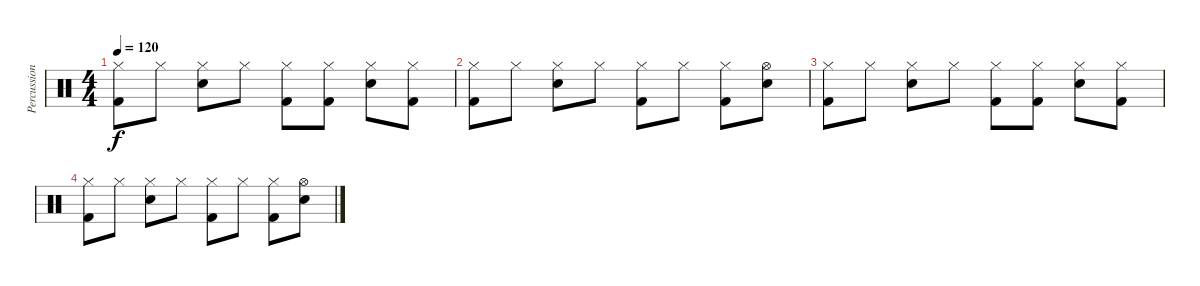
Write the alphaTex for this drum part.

\track ("Percussion" "Percussion") {instrument percussion}
\staff {score}
\articulation defaults
\ts (4 4)
\tempo 120
\clef neutral
\ks c
("Hi-Hat (closed)" "Kick (hit) 2").8{dy f} "Hi-Hat (closed)".8 ("Hi-Hat (closed)" "Snare (hit) 2").8 "Hi-Hat (closed)".8 ("Hi-Hat (closed)" "Kick (hit) 2").8 ("Hi-Hat (closed)" "Kick (hit) 2").8 ("Hi-Hat (closed)" "Snare (hit) 2").8 ("Hi-Hat (closed)" "Kick (hit) 2").8 |
("Hi-Hat (closed)" "Kick (hit) 2").8 "Hi-Hat (closed)".8 ("Hi-Hat (closed)" "Snare (hit) 2").8 "Hi-Hat (closed)".8 ("Hi-Hat (closed)" "Kick (hit) 2").8 "Hi-Hat (closed)".8 ("Hi-Hat (closed)" "Kick (hit) 2").8 ("Hi-Hat (open)" "Snare (hit) 2").8 |
("Hi-Hat (closed)" "Kick (hit) 2").8 "Hi-Hat (closed)".8 ("Hi-Hat (closed)" "Snare (hit) 2").8 "Hi-Hat (closed)".8 ("Hi-Hat (closed)" "Kick (hit) 2").8 ("Hi-Hat (closed)" "Kick (hit) 2").8 ("Hi-Hat (closed)" "Snare (hit) 2").8 ("Hi-Hat (closed)" "Kick (hit) 2").8 |
("Hi-Hat (closed)" "Kick (hit) 2").8 "Hi-Hat (closed)".8 ("Hi-Hat (closed)" "Snare (hit) 2").8 "Hi-Hat (closed)".8 ("Hi-Hat (closed)" "Kick (hit) 2").8 "Hi-Hat (closed)".8 ("Hi-Hat (closed)" "Kick (hit) 2").8 ("Hi-Hat (open)" "Snare (hit) 2").8
